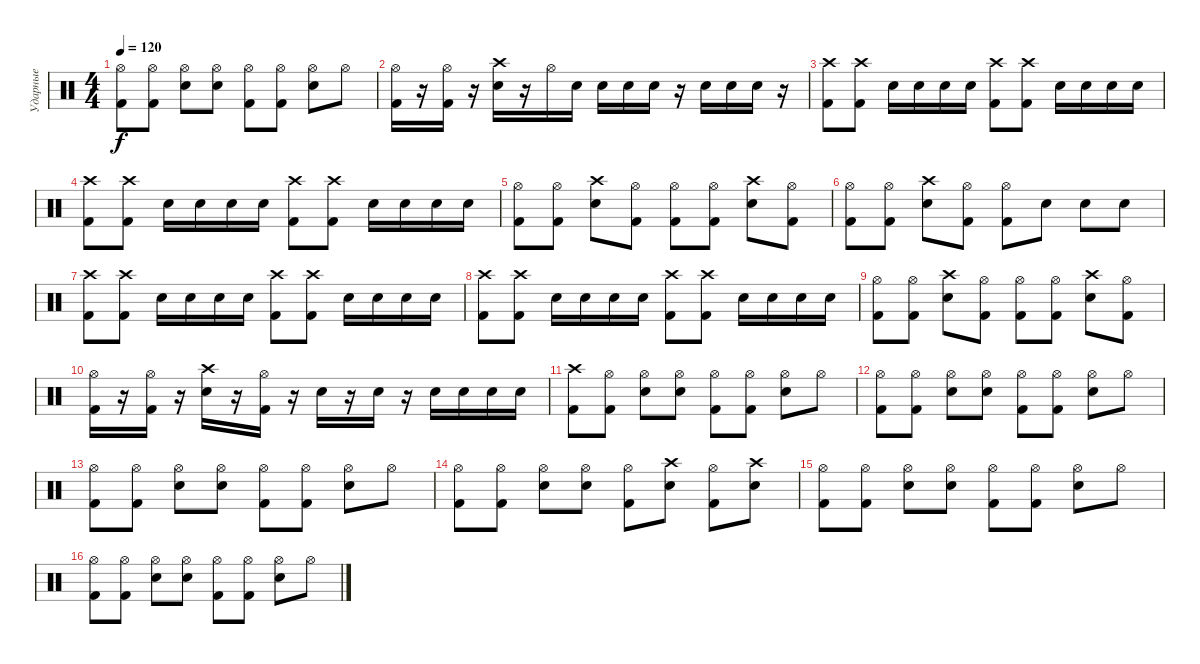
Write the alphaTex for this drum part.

\track ("Ударные" "Ударные") {instrument percussion}
\staff {score}
\articulation defaults
\ts (4 4)
\tempo 120
\clef neutral
\ks c
("Hi-Hat (open)" "Kick (hit) 2").8{dy f} ("Hi-Hat (open)" "Kick (hit) 2").8 ("Hi-Hat (open)" "Snare (hit) 2").8 ("Hi-Hat (open)" "Snare (hit) 2").8 ("Hi-Hat (open)" "Kick (hit) 2").8 ("Hi-Hat (open)" "Kick (hit) 2").8 ("Hi-Hat (open)" "Snare (hit) 2").8 "Hi-Hat (open)".8 |
("Hi-Hat (open)" "Kick (hit) 2").16 r.16 ("Hi-Hat (open)" "Kick (hit) 2").16 r.16 ("Crash high (hit)" "Snare (hit) 2").16 r.16 "Hi-Hat (open)".16 "Snare (hit) 2".16 "Snare (hit) 2".16 "Snare (hit) 2".16 "Snare (hit) 2".16 r.16 "Snare (hit) 2".16 "Snare (hit) 2".16 "Snare (hit) 2".16 r.16 |
("Crash high (hit)" "Kick (hit) 2").8 ("Crash high (hit)" "Kick (hit) 2").8 "Snare (hit) 2".16 "Snare (hit) 2".16 "Snare (hit) 2".16 "Snare (hit) 2".16 ("Crash high (hit)" "Kick (hit) 2").8 ("Crash high (hit)" "Kick (hit) 2").8 "Snare (hit) 2".16 "Snare (hit) 2".16 "Snare (hit) 2".16 "Snare (hit) 2".16 |
("Crash high (hit)" "Kick (hit) 2").8 ("Crash high (hit)" "Kick (hit) 2").8 "Snare (hit) 2".16 "Snare (hit) 2".16 "Snare (hit) 2".16 "Snare (hit) 2".16 ("Crash high (hit)" "Kick (hit) 2").8 ("Crash high (hit)" "Kick (hit) 2").8 "Snare (hit) 2".16 "Snare (hit) 2".16 "Snare (hit) 2".16 "Snare (hit) 2".16 |
("Hi-Hat (open)" "Kick (hit) 2").8 ("Hi-Hat (open)" "Kick (hit) 2").8 ("Crash high (hit)" "Snare (hit) 2").8 ("Hi-Hat (open)" "Kick (hit) 2").8 ("Hi-Hat (open)" "Kick (hit) 2").8 ("Hi-Hat (open)" "Kick (hit) 2").8 ("Crash high (hit)" "Snare (hit) 2").8 ("Hi-Hat (open)" "Kick (hit) 2").8 |
("Hi-Hat (open)" "Kick (hit) 2").8 ("Hi-Hat (open)" "Kick (hit) 2").8 ("Crash high (hit)" "Snare (hit) 2").8 ("Hi-Hat (open)" "Kick (hit) 2").8 ("Hi-Hat (open)" "Kick (hit) 2").8 "Snare (hit) 2".8 "Snare (hit) 2".8 "Snare (hit) 2".8 |
("Crash high (hit)" "Kick (hit) 2").8 ("Crash high (hit)" "Kick (hit) 2").8 "Snare (hit) 2".16 "Snare (hit) 2".16 "Snare (hit) 2".16 "Snare (hit) 2".16 ("Crash high (hit)" "Kick (hit) 2").8 ("Crash high (hit)" "Kick (hit) 2").8 "Snare (hit) 2".16 "Snare (hit) 2".16 "Snare (hit) 2".16 "Snare (hit) 2".16 |
("Crash high (hit)" "Kick (hit) 2").8 ("Crash high (hit)" "Kick (hit) 2").8 "Snare (hit) 2".16 "Snare (hit) 2".16 "Snare (hit) 2".16 "Snare (hit) 2".16 ("Crash high (hit)" "Kick (hit) 2").8 ("Crash high (hit)" "Kick (hit) 2").8 "Snare (hit) 2".16 "Snare (hit) 2".16 "Snare (hit) 2".16 "Snare (hit) 2".16 |
("Hi-Hat (open)" "Kick (hit) 2").8 ("Hi-Hat (open)" "Kick (hit) 2").8 ("Crash high (hit)" "Snare (hit) 2").8 ("Hi-Hat (open)" "Kick (hit) 2").8 ("Hi-Hat (open)" "Kick (hit) 2").8 ("Hi-Hat (open)" "Kick (hit) 2").8 ("Crash high (hit)" "Snare (hit) 2").8 ("Hi-Hat (open)" "Kick (hit) 2").8 |
("Hi-Hat (open)" "Kick (hit) 2").16 r.16 ("Hi-Hat (open)" "Kick (hit) 2").16 r.16 ("Crash high (hit)" "Snare (hit) 2").16 r.16 ("Hi-Hat (open)" "Kick (hit) 2").16 r.16 "Snare (hit) 2".16 r.16 "Snare (hit) 2".16 r.16 "Snare (hit) 2".16 "Snare (hit) 2".16 "Snare (hit) 2".16 "Snare (hit) 2".16 |
("Crash high (hit)" "Kick (hit) 2").8 ("Hi-Hat (open)" "Kick (hit) 2").8 ("Hi-Hat (open)" "Snare (hit) 2").8 ("Hi-Hat (open)" "Snare (hit) 2").8 ("Hi-Hat (open)" "Kick (hit) 2").8 ("Hi-Hat (open)" "Kick (hit) 2").8 ("Hi-Hat (open)" "Snare (hit) 2").8 "Hi-Hat (open)".8 |
("Hi-Hat (open)" "Kick (hit) 2").8 ("Hi-Hat (open)" "Kick (hit) 2").8 ("Hi-Hat (open)" "Snare (hit) 2").8 ("Hi-Hat (open)" "Snare (hit) 2").8 ("Hi-Hat (open)" "Kick (hit) 2").8 ("Hi-Hat (open)" "Kick (hit) 2").8 ("Hi-Hat (open)" "Snare (hit) 2").8 "Hi-Hat (open)".8 |
("Hi-Hat (open)" "Kick (hit) 2").8 ("Hi-Hat (open)" "Kick (hit) 2").8 ("Hi-Hat (open)" "Snare (hit) 2").8 ("Hi-Hat (open)" "Snare (hit) 2").8 ("Hi-Hat (open)" "Kick (hit) 2").8 ("Hi-Hat (open)" "Kick (hit) 2").8 ("Hi-Hat (open)" "Snare (hit) 2").8 "Hi-Hat (open)".8 |
("Hi-Hat (open)" "Kick (hit) 2").8 ("Hi-Hat (open)" "Kick (hit) 2").8 ("Hi-Hat (open)" "Snare (hit) 2").8 ("Hi-Hat (open)" "Snare (hit) 2").8 ("Hi-Hat (open)" "Kick (hit) 2").8 ("Crash high (hit)" "Snare (hit) 2").8 ("Hi-Hat (open)" "Kick (hit) 2").8 ("Crash high (hit)" "Snare (hit) 2").8 |
("Hi-Hat (open)" "Kick (hit) 2").8 ("Hi-Hat (open)" "Kick (hit) 2").8 ("Hi-Hat (open)" "Snare (hit) 2").8 ("Hi-Hat (open)" "Snare (hit) 2").8 ("Hi-Hat (open)" "Kick (hit) 2").8 ("Hi-Hat (open)" "Kick (hit) 2").8 ("Hi-Hat (open)" "Snare (hit) 2").8 "Hi-Hat (open)".8 |
("Hi-Hat (open)" "Kick (hit) 2").8 ("Hi-Hat (open)" "Kick (hit) 2").8 ("Hi-Hat (open)" "Snare (hit) 2").8 ("Hi-Hat (open)" "Snare (hit) 2").8 ("Hi-Hat (open)" "Kick (hit) 2").8 ("Hi-Hat (open)" "Kick (hit) 2").8 ("Hi-Hat (open)" "Snare (hit) 2").8 "Hi-Hat (open)".8
